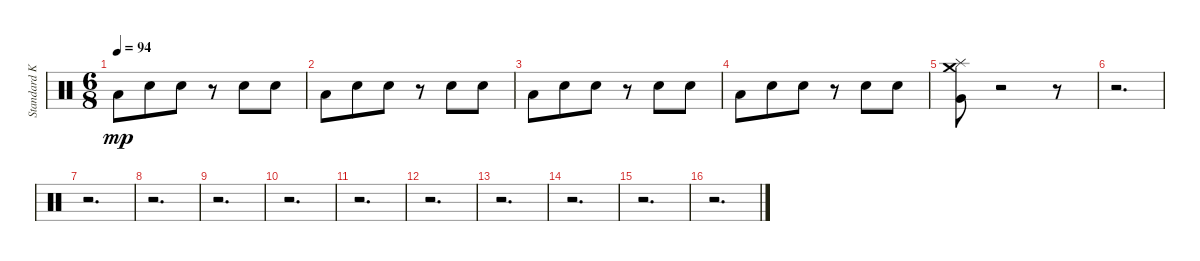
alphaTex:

\track ("Standard Kit" "Standard K") {instrument percussion}
\staff {score}
\articulation defaults
\ts (6 8)
\tempo 94
\clef neutral
\ks c "Low Floor Tom (hit)".8{dy mp} "Electric Snare (hit)".8 "Electric Snare (hit)".8
r.8 "Electric Snare (hit)".8 "Electric Snare (hit)".8 |
"Low Floor Tom (hit)".8 "Electric Snare (hit)".8 "Electric Snare (hit)".8 r.8 "Electric Snare (hit)".8 "Electric Snare (hit)".8 |
"Low Floor Tom (hit)".8 "Electric Snare (hit)".8 "Electric Snare (hit)".8 r.8 "Electric Snare (hit)".8 "Electric Snare (hit)".8 |
"Low Floor Tom (hit)".8 "Electric Snare (hit)".8 "Electric Snare (hit)".8 r.8 "Electric Snare (hit)".8 "Electric Snare (hit)".8 |
("Very Low Tom (hit)" "Splash (hit)" "Crash medium (hit)").8 r.2 r.8 |
r.2{d} |
r.2{d} |
r.2{d} |
r.2{d} |
r.2{d} |
r.2{d} |
r.2{d} |
r.2{d} |
r.2{d} |
r.2{d} |
r.2{d}
